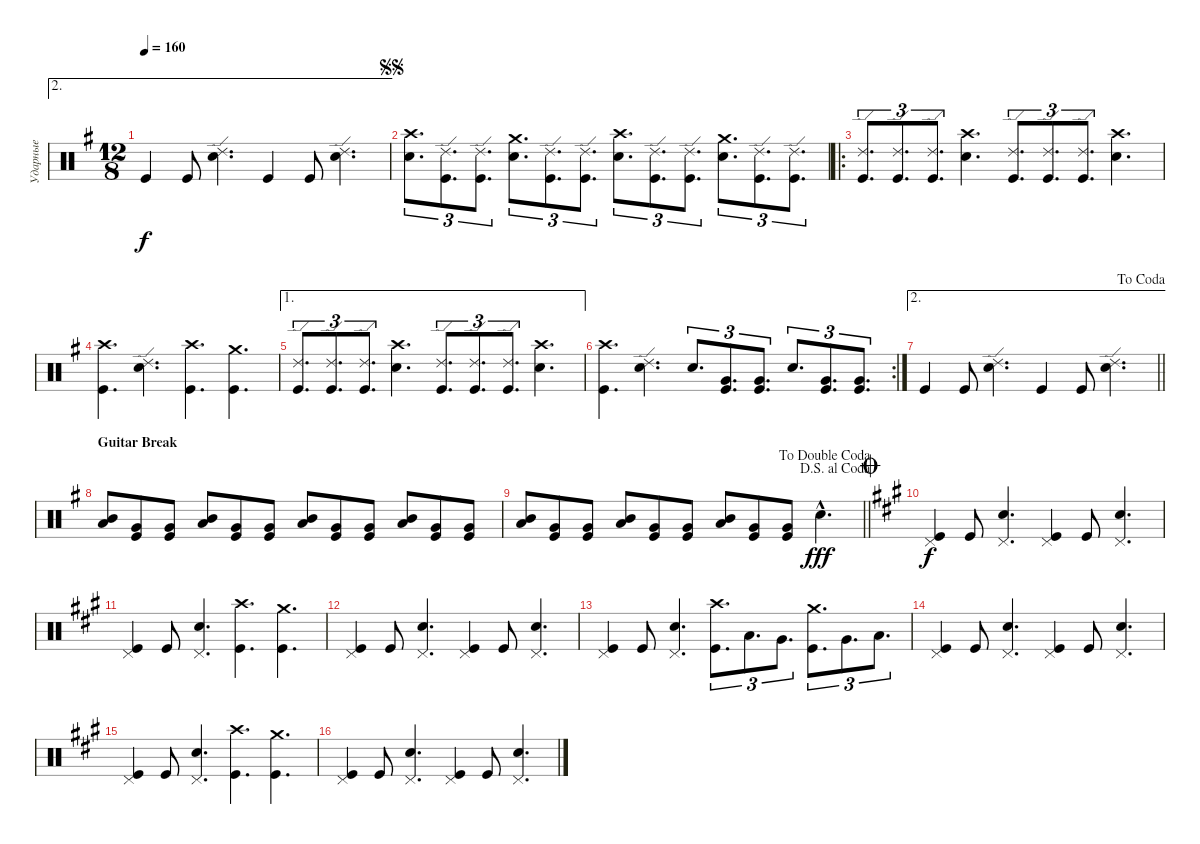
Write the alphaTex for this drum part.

\track ("Ударные" "Ударные") {instrument percussion}
\staff {score}
\articulation defaults
\ae 2
\ts (12 8)
\tempo 160
\clef neutral
\ks g "Kick (hit)".4{dy f} "Kick (hit)".8
("Snare (hit) 2" "Ride (edge) 2").4{d} "Kick (hit)".4 "Kick (hit)".8 ("Snare (hit) 2" "Ride (edge) 2").4{d} |
\jump segnosegno
("Snare (hit) 2" "Crash high (hit)").8{d tu (3 2)} ("Kick (hit)" "Ride (edge) 2").8{d tu (3 2)} ("Kick (hit)" "Ride (edge) 2").8{d tu (3 2)} ("Snare (hit) 2" "Crash medium (hit)").8{d tu (3 2)} ("Kick (hit)" "Ride (edge) 2").8{d tu (3 2)} ("Kick (hit)" "Ride (edge) 2").8{d tu (3 2)} ("Snare (hit) 2" "Crash high (hit)").8{d tu (3 2)} ("Kick (hit)" "Ride (edge) 2").8{d tu (3 2)} ("Kick (hit)" "Ride (edge) 2").8{d tu (3 2)} ("Snare (hit) 2" "Crash medium (hit)").8{d tu (3 2)} ("Kick (hit)" "Ride (edge) 2").8{d tu (3 2)} ("Kick (hit)" "Ride (edge) 2").8{d tu (3 2)} |
\ro
("Kick (hit)" "Ride (edge) 2").8{d tu (3 2)} ("Kick (hit)" "Ride (edge) 2").8{d tu (3 2)} ("Kick (hit)" "Ride (edge) 2").8{d tu (3 2)} ("Snare (hit) 2" "Crash high (hit)").4{d} ("Kick (hit)" "Ride (edge) 2").8{d tu (3 2)} ("Kick (hit)" "Ride (edge) 2").8{d tu (3 2)} ("Kick (hit)" "Ride (edge) 2").8{d tu (3 2)} ("Snare (hit) 2" "Crash high (hit)").4{d} |
("Kick (hit)" "Crash high (hit)").4{d} ("Ride (edge) 2" "Snare (hit) 2").4{d} ("Kick (hit)" "Crash high (hit)").4{d} ("Kick (hit)" "Crash medium (hit)").4{d} |
\ae 1
("Kick (hit)" "Ride (edge) 2").8{d tu (3 2)} ("Kick (hit)" "Ride (edge) 2").8{d tu (3 2)} ("Kick (hit)" "Ride (edge) 2").8{d tu (3 2)} ("Snare (hit) 2" "Crash high (hit)").4{d} ("Kick (hit)" "Ride (edge) 2").8{d tu (3 2)} ("Kick (hit)" "Ride (edge) 2").8{d tu (3 2)} ("Kick (hit)" "Ride (edge) 2").8{d tu (3 2)} ("Snare (hit) 2" "Crash high (hit)").4{d} |
\rc 2
("Kick (hit)" "Crash high (hit)").4{d} ("Snare (hit) 2" "Ride (edge) 2").4{d} "Snare (hit) 2".8{d tu (3 2)} ("Kick (hit)" "Very Low Tom (hit)").8{d tu (3 2)} ("Kick (hit)" "Very Low Tom (hit)").8{d tu (3 2)} "Snare (hit) 2".8{d tu (3 2)} ("Kick (hit)" "Very Low Tom (hit)").8{d tu (3 2)} ("Kick (hit)" "Very Low Tom (hit)").8{d tu (3 2)} |
\ae 2
\jump dacoda
\barLineRight lightlight "Kick (hit)".4 "Kick (hit)".8
("Snare (hit) 2" "Ride (edge) 2").4{d} "Kick (hit)".4 "Kick (hit)".8 ("Snare (hit) 2" "Ride (edge) 2").4{d} |
\section ("" "Guitar Break")
("Mid Tom (hit)" "Low Tom (hit)").8 ("Very Low Tom (hit)" "Kick (hit)").8 ("Kick (hit)" "Very Low Tom (hit)").8 ("Mid Tom (hit)" "Low Tom (hit)").8 ("Very Low Tom (hit)" "Kick (hit)").8 ("Kick (hit)" "Very Low Tom (hit)").8 ("Mid Tom (hit)" "Low Tom (hit)").8 ("Very Low Tom (hit)" "Kick (hit)").8 ("Kick (hit)" "Very Low Tom (hit)").8 ("Mid Tom (hit)" "Low Tom (hit)").8 ("Very Low Tom (hit)" "Kick (hit)").8 ("Kick (hit)" "Very Low Tom (hit)").8 |
\jump dalsegnoalcoda
\jump dadoublecoda
\barLineRight lightlight
("Mid Tom (hit)" "Low Tom (hit)").8 ("Very Low Tom (hit)" "Kick (hit)").8 ("Kick (hit)" "Very Low Tom (hit)").8 ("Mid Tom (hit)" "Low Tom (hit)").8 ("Very Low Tom (hit)" "Kick (hit)").8 ("Kick (hit)" "Very Low Tom (hit)").8 ("Mid Tom (hit)" "Low Tom (hit)").8 ("Very Low Tom (hit)" "Kick (hit)").8 ("Kick (hit)" "Very Low Tom (hit)").8 "Snare (hit) 2"{hac}.4{d dy fff} |
\jump coda
\ks a
("Kick (hit)" "Pedal Hi-Hat (hit)").4{dy f} "Kick (hit)".8 ("Snare (hit) 2" "Pedal Hi-Hat (hit)").4{d} ("Kick (hit)" "Pedal Hi-Hat (hit)").4 "Kick (hit)".8 ("Snare (hit) 2" "Pedal Hi-Hat (hit)").4{d} |
("Kick (hit)" "Pedal Hi-Hat (hit)").4 "Kick (hit)".8 ("Snare (hit) 2" "Pedal Hi-Hat (hit)").4{d} ("Kick (hit)" "Crash high (hit)").4{d} ("Kick (hit)" "Crash medium (hit)").4{d} |
("Kick (hit)" "Pedal Hi-Hat (hit)").4 "Kick (hit)".8 ("Snare (hit) 2" "Pedal Hi-Hat (hit)").4{d} ("Kick (hit)" "Pedal Hi-Hat (hit)").4 "Kick (hit)".8 ("Snare (hit) 2" "Pedal Hi-Hat (hit)").4{d} |
("Kick (hit)" "Pedal Hi-Hat (hit)").4 "Kick (hit)".8 ("Snare (hit) 2" "Pedal Hi-Hat (hit)").4{d} ("Kick (hit)" "Crash high (hit)").8{d tu (3 2)} "Low Tom (hit)".8{d tu (3 2)} "Very Low Tom (hit)".8{d tu (3 2)} ("Kick (hit)" "Crash medium (hit)").8{d tu (3 2)} "Very Low Tom (hit)".8{d tu (3 2)} "Low Floor Tom (hit)".8{d tu (3 2)} |
("Kick (hit)" "Pedal Hi-Hat (hit)").4 "Kick (hit)".8 ("Snare (hit) 2" "Pedal Hi-Hat (hit)").4{d} ("Kick (hit)" "Pedal Hi-Hat (hit)").4 "Kick (hit)".8 ("Snare (hit) 2" "Pedal Hi-Hat (hit)").4{d} |
("Kick (hit)" "Pedal Hi-Hat (hit)").4 "Kick (hit)".8 ("Snare (hit) 2" "Pedal Hi-Hat (hit)").4{d} ("Kick (hit)" "Crash high (hit)").4{d} ("Kick (hit)" "Crash medium (hit)").4{d} |
("Kick (hit)" "Pedal Hi-Hat (hit)").4 "Kick (hit)".8 ("Snare (hit) 2" "Pedal Hi-Hat (hit)").4{d} ("Kick (hit)" "Pedal Hi-Hat (hit)").4 "Kick (hit)".8 ("Snare (hit) 2" "Pedal Hi-Hat (hit)").4{d}
